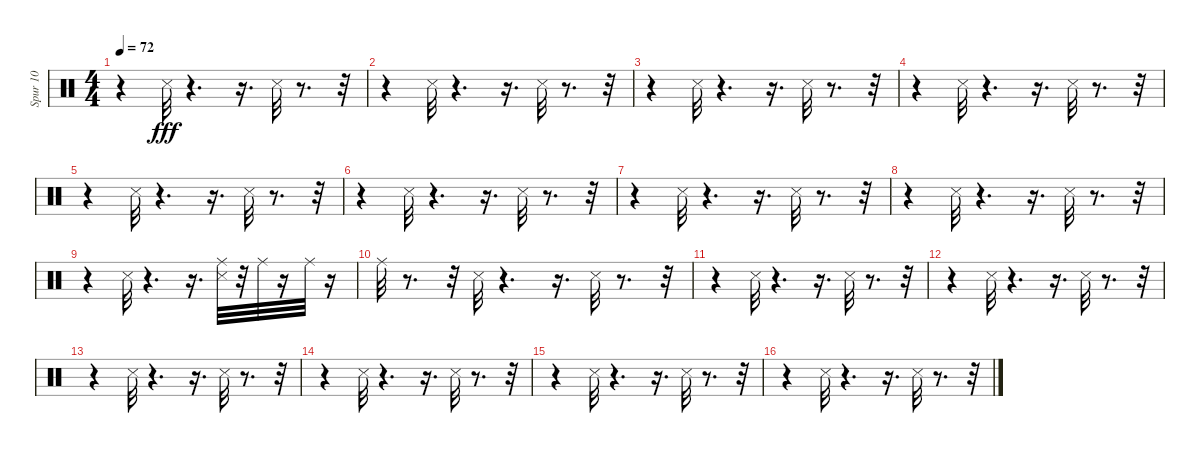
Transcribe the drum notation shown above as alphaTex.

\track ("Spur 10" "Spur 10") {instrument percussion}
\staff {score}
\articulation defaults
\ts (4 4)
\tempo 72
\clef neutral
\ks c
r.4{dy fff} "Snare (side stick) 3".32 r.4{d} r.16{d} "Snare (side stick) 3".32 r.8{d} r.32 |
r.4 "Snare (side stick) 3".32 r.4{d} r.16{d} "Snare (side stick) 3".32 r.8{d} r.32 |
r.4 "Snare (side stick) 3".32 r.4{d} r.16{d} "Snare (side stick) 3".32 r.8{d} r.32 |
r.4 "Snare (side stick) 3".32 r.4{d} r.16{d} "Snare (side stick) 3".32 r.8{d} r.32 |
r.4 "Snare (side stick) 3".32 r.4{d} r.16{d} "Snare (side stick) 3".32 r.8{d} r.32 |
r.4 "Snare (side stick) 3".32 r.4{d} r.16{d} "Snare (side stick) 3".32 r.8{d} r.32 |
r.4 "Snare (side stick) 3".32 r.4{d} r.16{d} "Snare (side stick) 3".32 r.8{d} r.32 |
r.4 "Snare (side stick) 3".32 r.4{d} r.16{d} "Snare (side stick) 3".32 r.8{d} r.32 |
r.4 "Snare (side stick) 3".32 r.4{d} r.16{d} ("Snare (side stick) 3" "Ride (middle)").32 r.32 "Ride (middle)".32 r.16 "Ride (middle)".32 r.16 |
"Ride (middle)".32 r.8{d} r.32 "Snare (side stick) 3".32 r.4{d} r.16{d} "Snare (side stick) 3".32 r.8{d} r.32 |
r.4 "Snare (side stick) 3".32 r.4{d} r.16{d} "Snare (side stick) 3".32 r.8{d} r.32 |
r.4 "Snare (side stick) 3".32 r.4{d} r.16{d} "Snare (side stick) 3".32 r.8{d} r.32 |
r.4 "Snare (side stick) 3".32 r.4{d} r.16{d} "Snare (side stick) 3".32 r.8{d} r.32 |
r.4 "Snare (side stick) 3".32 r.4{d} r.16{d} "Snare (side stick) 3".32 r.8{d} r.32 |
r.4 "Snare (side stick) 3".32 r.4{d} r.16{d} "Snare (side stick) 3".32 r.8{d} r.32 |
r.4 "Snare (side stick) 3".32 r.4{d} r.16{d} "Snare (side stick) 3".32 r.8{d} r.32
